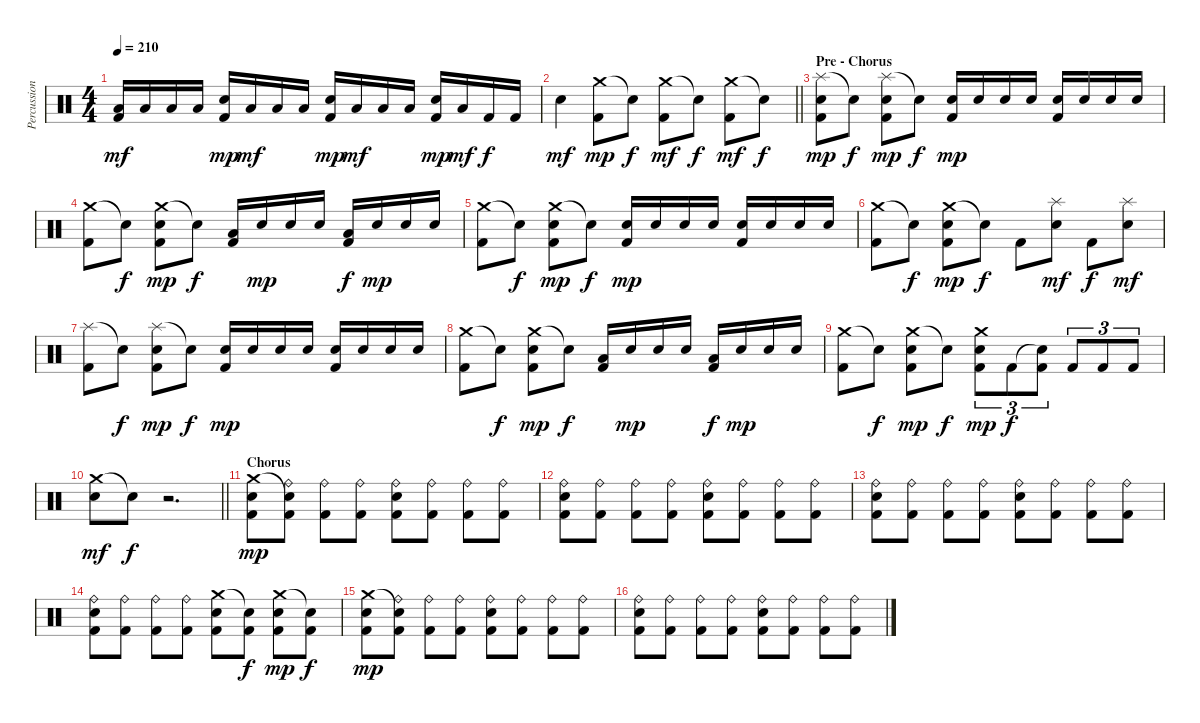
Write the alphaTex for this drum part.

\track ("Percussion" "Percussion") {instrument percussion}
\staff {score}
\articulation defaults
\ts (4 4)
\tempo 210
\clef neutral
\ks c
("Low Tom (hit)" "Kick (hit) 2").16{dy mf} "Low Tom (hit)".16 "Low Tom (hit)".16 "Low Tom (hit)".16 ("Electric Snare (hit)" "Kick (hit) 2").16{dy mp} "Low Tom (hit)".16{dy mf} "Low Tom (hit)".16 "Low Tom (hit)".16 ("Electric Snare (hit)" "Kick (hit) 2").16{dy mp} "Low Tom (hit)".16{dy mf} "Low Tom (hit)".16 "Low Tom (hit)".16 ("Electric Snare (hit)" "Kick (hit) 2").16{dy mp} "Low Tom (hit)".16{dy mf} "Kick (hit) 2".16{dy f} "Kick (hit) 2".16 |
\barLineRight lightlight "Electric Snare (hit)".4{dy mf}
("Crash medium (hit)" "Kick (hit) 2").8{dy mp} "Snare (hit)"{t}.8{dy f} ("Crash medium (hit)" "Kick (hit) 2").8{dy mf} "Snare (hit)"{t}.8{dy f} ("Crash medium (hit)" "Kick (hit) 2").8{dy mf} "Snare (hit)"{t}.8{dy f} |
\section ("" "Pre - Chorus")
("Splash (hit)" "Electric Snare (hit)" "Kick (hit) 2").8{dy mp} "Snare (hit)"{t}.8{dy f} ("Splash (hit)" "Electric Snare (hit)" "Kick (hit) 2").8{dy mp} "Snare (hit)"{t}.8{dy f} ("Electric Snare (hit)" "Kick (hit) 2").16{dy mp} "Electric Snare (hit)".16 "Electric Snare (hit)".16 "Electric Snare (hit)".16 ("Electric Snare (hit)" "Kick (hit) 2").16 "Electric Snare (hit)".16 "Electric Snare (hit)".16 "Electric Snare (hit)".16 |
("Crash medium (hit)" "Kick (hit) 2").8 "Snare (hit)"{t}.8{dy f} ("Crash medium (hit)" "Electric Snare (hit)" "Kick (hit) 2").8{dy mp} "Snare (hit)"{t}.8{dy f} ("Low Tom (hit)" "Kick (hit) 2").16 "Electric Snare (hit)".16{dy mp} "Electric Snare (hit)".16 "Electric Snare (hit)".16 ("Low Tom (hit)" "Kick (hit) 2").16{dy f} "Electric Snare (hit)".16{dy mp} "Electric Snare (hit)".16 "Electric Snare (hit)".16 |
("Crash medium (hit)" "Kick (hit) 2").8 "Snare (hit)"{t}.8{dy f} ("Crash medium (hit)" "Electric Snare (hit)" "Kick (hit) 2").8{dy mp} "Snare (hit)"{t}.8{dy f} ("Electric Snare (hit)" "Kick (hit) 2").16{dy mp} "Electric Snare (hit)".16 "Electric Snare (hit)".16 "Electric Snare (hit)".16 ("Electric Snare (hit)" "Kick (hit) 2").16 "Electric Snare (hit)".16 "Electric Snare (hit)".16 "Electric Snare (hit)".16 |
("Crash medium (hit)" "Kick (hit) 2").8 "Snare (hit)"{t}.8{dy f} ("Crash medium (hit)" "Electric Snare (hit)" "Kick (hit) 2").8{dy mp} "Snare (hit)"{t}.8{dy f} "Kick (hit) 2".8 ("Splash (hit)" "Electric Snare (hit)").8{dy mf} "Kick (hit) 2".8{dy f} ("Splash (hit)" "Electric Snare (hit)").8{dy mf} |
("Splash (hit)" "Kick (hit) 2").8 "Snare (hit)"{t}.8{dy f} ("Splash (hit)" "Electric Snare (hit)" "Kick (hit) 2").8{dy mp} "Snare (hit)"{t}.8{dy f} ("Electric Snare (hit)" "Kick (hit) 2").16{dy mp} "Electric Snare (hit)".16 "Electric Snare (hit)".16 "Electric Snare (hit)".16 ("Electric Snare (hit)" "Kick (hit) 2").16 "Electric Snare (hit)".16 "Electric Snare (hit)".16 "Electric Snare (hit)".16 |
("Crash medium (hit)" "Kick (hit) 2").8 "Snare (hit)"{t}.8{dy f} ("Crash medium (hit)" "Electric Snare (hit)" "Kick (hit) 2").8{dy mp} "Snare (hit)"{t}.8{dy f} ("Low Tom (hit)" "Kick (hit) 2").16 "Electric Snare (hit)".16{dy mp} "Electric Snare (hit)".16 "Electric Snare (hit)".16 ("Low Tom (hit)" "Kick (hit) 2").16{dy f} "Electric Snare (hit)".16{dy mp} "Electric Snare (hit)".16 "Electric Snare (hit)".16 |
("Crash medium (hit)" "Kick (hit) 2").8 "Snare (hit)"{t}.8{dy f} ("Crash medium (hit)" "Electric Snare (hit)" "Kick (hit) 2").8{dy mp} "Snare (hit)"{t}.8{dy f} ("Crash medium (hit)" "Electric Snare (hit)" "Kick (hit) 2").8{tu (3 2) dy mp} "Kick (hit) 2".8{tu (3 2) dy f} ("Snare (hit)"{t} "Kick (hit) 2").8{tu (3 2)} "Kick (hit) 2".8{tu (3 2)} "Kick (hit) 2".8{tu (3 2)} "Kick (hit) 2".8{tu (3 2)} |
\barLineRight lightlight
("Crash medium (hit)" "Electric Snare (hit)").8{dy mf} "Snare (hit)"{t}.8{dy f} r.2{d} |
\section ("" "Chorus")
("Crash medium (hit)" "Electric Snare (hit)" "Kick (hit) 2").8{dy mp} ("Snare (hit)"{t} "Ride (bell)" "Kick (hit) 2").8 ("Ride (bell)" "Kick (hit) 2").8 ("Ride (bell)" "Kick (hit) 2").8 ("Ride (bell)" "Electric Snare (hit)" "Kick (hit) 2").8 ("Ride (bell)" "Kick (hit) 2").8 ("Ride (bell)" "Kick (hit) 2").8 ("Ride (bell)" "Kick (hit) 2").8 |
("Ride (bell)" "Electric Snare (hit)" "Kick (hit) 2").8 ("Ride (bell)" "Kick (hit) 2").8 ("Ride (bell)" "Kick (hit) 2").8 ("Ride (bell)" "Kick (hit) 2").8 ("Ride (bell)" "Electric Snare (hit)" "Kick (hit) 2").8 ("Ride (bell)" "Kick (hit) 2").8 ("Ride (bell)" "Kick (hit) 2").8 ("Ride (bell)" "Kick (hit) 2").8 |
("Ride (bell)" "Electric Snare (hit)" "Kick (hit) 2").8 ("Ride (bell)" "Kick (hit) 2").8 ("Ride (bell)" "Kick (hit) 2").8 ("Ride (bell)" "Kick (hit) 2").8 ("Ride (bell)" "Electric Snare (hit)" "Kick (hit) 2").8 ("Ride (bell)" "Kick (hit) 2").8 ("Ride (bell)" "Kick (hit) 2").8 ("Ride (bell)" "Kick (hit) 2").8 |
("Ride (bell)" "Electric Snare (hit)" "Kick (hit) 2").8 ("Ride (bell)" "Kick (hit) 2").8 ("Ride (bell)" "Kick (hit) 2").8 ("Ride (bell)" "Kick (hit) 2").8 ("Crash medium (hit)" "Electric Snare (hit)" "Kick (hit) 2").8 ("Snare (hit)"{t} "Kick (hit) 2").8{dy f} ("Crash medium (hit)" "Electric Snare (hit)" "Kick (hit) 2").8{dy mp} ("Snare (hit)"{t} "Kick (hit) 2").8{dy f} |
("Crash medium (hit)" "Electric Snare (hit)" "Kick (hit) 2").8{dy mp} ("Snare (hit)"{t} "Ride (bell)" "Kick (hit) 2").8 ("Ride (bell)" "Kick (hit) 2").8 ("Ride (bell)" "Kick (hit) 2").8 ("Ride (bell)" "Electric Snare (hit)" "Kick (hit) 2").8 ("Ride (bell)" "Kick (hit) 2").8 ("Ride (bell)" "Kick (hit) 2").8 ("Ride (bell)" "Kick (hit) 2").8 |
("Ride (bell)" "Electric Snare (hit)" "Kick (hit) 2").8 ("Ride (bell)" "Kick (hit) 2").8 ("Ride (bell)" "Kick (hit) 2").8 ("Ride (bell)" "Kick (hit) 2").8 ("Ride (bell)" "Electric Snare (hit)" "Kick (hit) 2").8 ("Ride (bell)" "Kick (hit) 2").8 ("Ride (bell)" "Kick (hit) 2").8 ("Ride (bell)" "Kick (hit) 2").8
